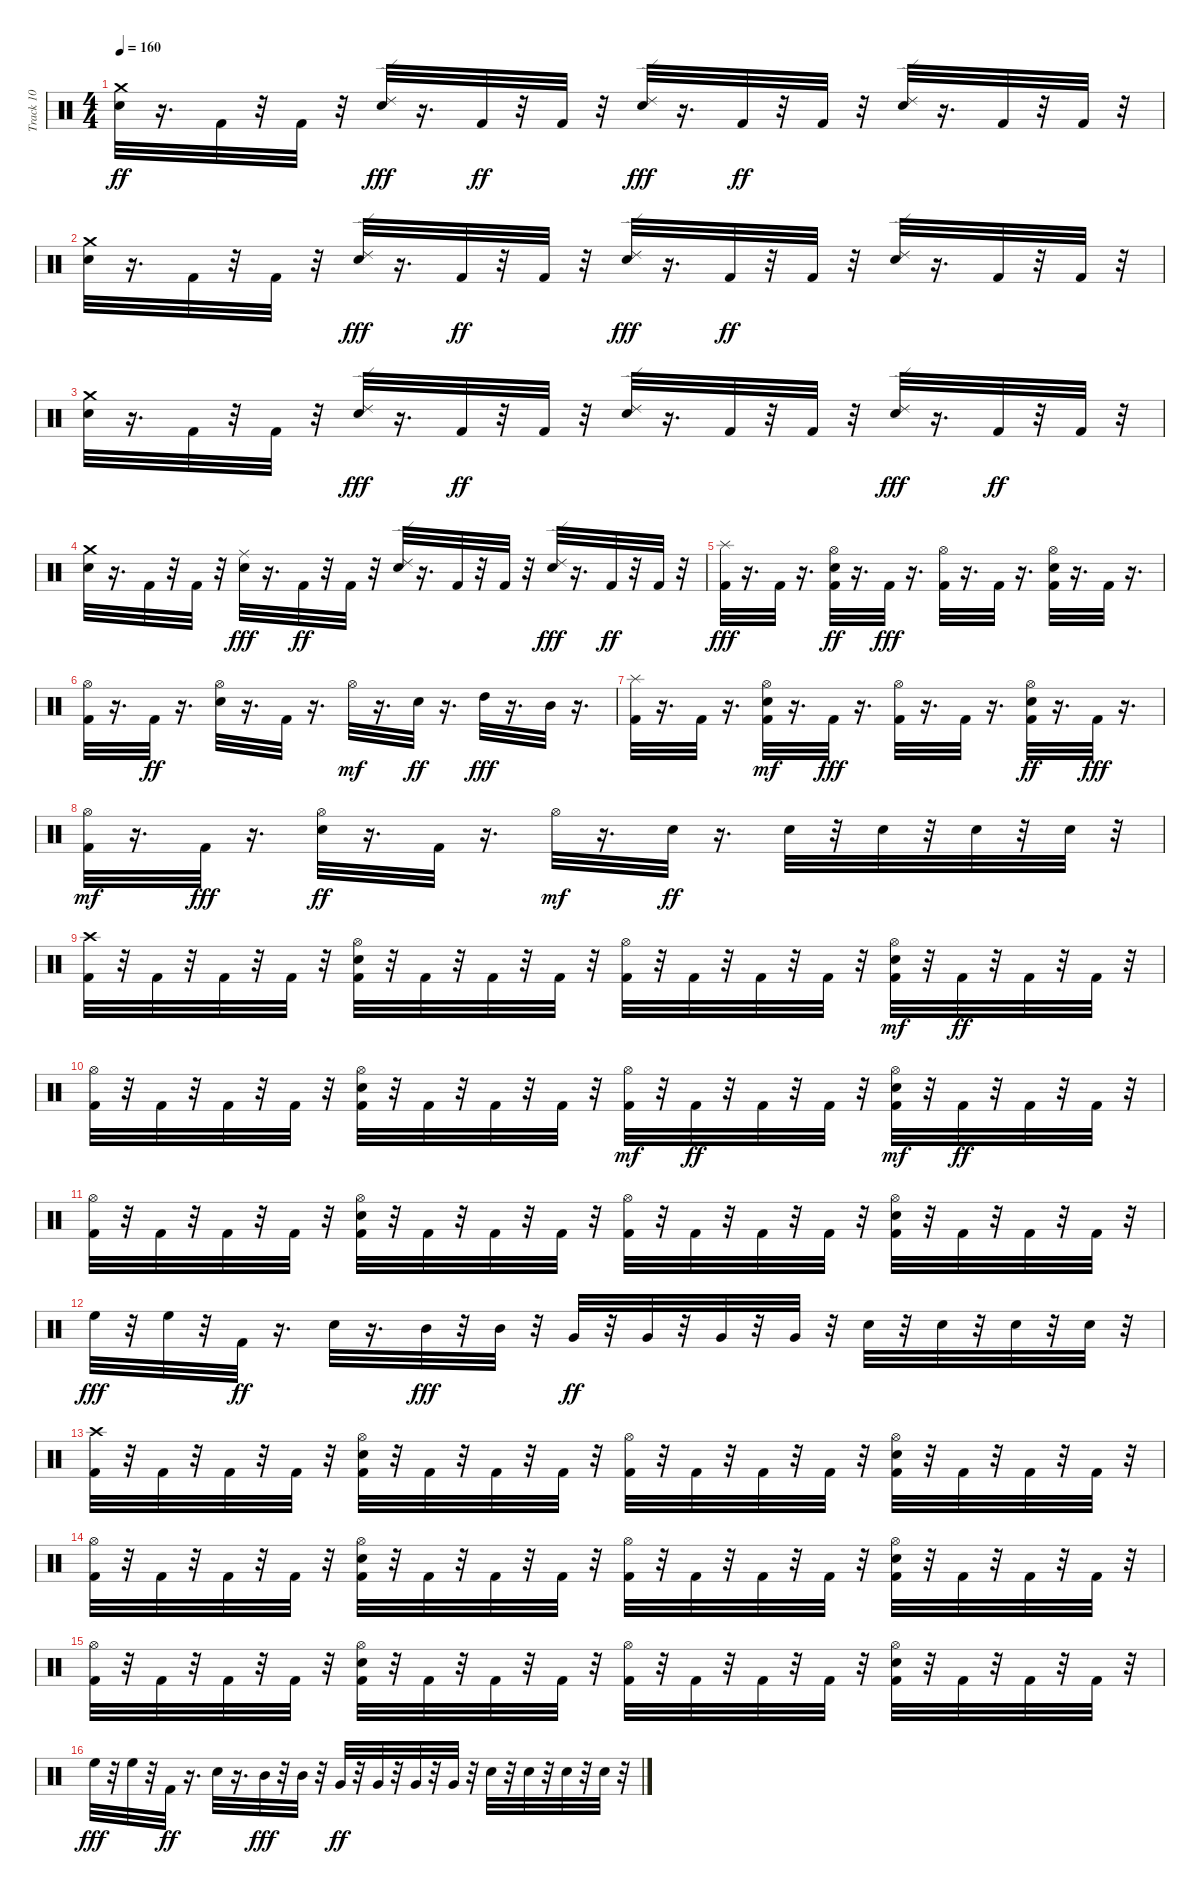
\track ("Track 10" "Track 10") {instrument percussion}
\staff {score}
\articulation defaults
\ts (4 4)
\tempo 160
\clef neutral
\ks c
("Electric Snare (hit)" "Crash medium (hit)").32{dy ff} r.16{d} "Kick (hit) 2".32 r.32 "Kick (hit) 2".32 r.32 ("Electric Snare (hit)" "Ride (edge) 2").32{dy fff} r.16{d} "Kick (hit) 2".32{dy ff} r.32 "Kick (hit) 2".32 r.32 ("Electric Snare (hit)" "Ride (edge) 2").32{dy fff} r.16{d} "Kick (hit) 2".32{dy ff} r.32 "Kick (hit) 2".32 r.32 ("Ride (edge) 2" "Electric Snare (hit)").32 r.16{d} "Kick (hit) 2".32 r.32 "Kick (hit) 2".32 r.32 |
("Crash medium (hit)" "Electric Snare (hit)").32 r.16{d} "Kick (hit) 2".32 r.32 "Kick (hit) 2".32 r.32 ("Electric Snare (hit)" "Ride (edge) 2").32{dy fff} r.16{d} "Kick (hit) 2".32{dy ff} r.32 "Kick (hit) 2".32 r.32 ("Electric Snare (hit)" "Ride (edge) 2").32{dy fff} r.16{d} "Kick (hit) 2".32{dy ff} r.32 "Kick (hit) 2".32 r.32 ("Ride (edge) 2" "Electric Snare (hit)").32 r.16{d} "Kick (hit) 2".32 r.32 "Kick (hit) 2".32 r.32 |
("Crash medium (hit)" "Electric Snare (hit)").32 r.16{d} "Kick (hit) 2".32 r.32 "Kick (hit) 2".32 r.32 ("Electric Snare (hit)" "Ride (edge) 2").32{dy fff} r.16{d} "Kick (hit) 2".32{dy ff} r.32 "Kick (hit) 2".32 r.32 ("Ride (edge) 2" "Electric Snare (hit)").32 r.16{d} "Kick (hit) 2".32 r.32 "Kick (hit) 2".32 r.32 ("Electric Snare (hit)" "Ride (edge) 2").32{dy fff} r.16{d} "Kick (hit) 2".32{dy ff} r.32 "Kick (hit) 2".32 r.32 |
("Electric Snare (hit)" "Crash medium (hit)").32 r.16{d} "Kick (hit) 2".32 r.32 "Kick (hit) 2".32 r.32 ("Electric Snare (hit)" "Ride (middle)").32{dy fff} r.16{d} "Kick (hit) 2".32{dy ff} r.32 "Kick (hit) 2".32 r.32 ("Ride (edge) 2" "Electric Snare (hit)").32 r.16{d} "Kick (hit) 2".32 r.32 "Kick (hit) 2".32 r.32 ("Electric Snare (hit)" "Ride (edge) 2").32{dy fff} r.16{d} "Kick (hit) 2".32{dy ff} r.32 "Kick (hit) 2".32 r.32 |
("Kick (hit) 2" "Splash (hit)").32{dy fff} r.16{d} "Kick (hit) 2".32 r.16{d} ("Hi-Hat (open)" "Kick (hit) 2" "Electric Snare (hit)").32{dy ff} r.16{d} "Kick (hit) 2".32{dy fff} r.16{d} ("Hi-Hat (open)" "Kick (hit) 2").32 r.16{d} "Kick (hit) 2".32 r.16{d} ("Hi-Hat (open)" "Electric Snare (hit)" "Kick (hit) 2").32 r.16{d} "Kick (hit) 2".32 r.16{d} |
("Hi-Hat (open)" "Kick (hit) 2").32 r.16{d} "Kick (hit) 2".32{dy ff} r.16{d} ("Hi-Hat (open)" "Electric Snare (hit)").32 r.16{d} "Kick (hit) 2".32 r.16{d} "Hi-Hat (open)".32{dy mf} r.16{d} "Electric Snare (hit)".32{dy ff} r.16{d} "High Tom (hit)".32{dy fff} r.16{d} "Mid Tom (hit)".32 r.16{d} |
("Kick (hit) 2" "Splash (hit)").32 r.16{d} "Kick (hit) 2".32 r.16{d} ("Electric Snare (hit)" "Kick (hit) 2" "Hi-Hat (open)").32{dy mf} r.16{d} "Kick (hit) 2".32{dy fff} r.16{d} ("Hi-Hat (open)" "Kick (hit) 2").32 r.16{d} "Kick (hit) 2".32 r.16{d} ("Kick (hit) 2" "Hi-Hat (open)" "Electric Snare (hit)").32{dy ff} r.16{d} "Kick (hit) 2".32{dy fff} r.16{d} |
("Kick (hit) 2" "Hi-Hat (open)").32{dy mf} r.16{d} "Kick (hit) 2".32{dy fff} r.16{d} ("Hi-Hat (open)" "Electric Snare (hit)").32{dy ff} r.16{d} "Kick (hit) 2".32 r.16{d} "Hi-Hat (open)".32{dy mf} r.16{d} "Electric Snare (hit)".32{dy ff} r.16{d} "Electric Snare (hit)".32 r.32 "Electric Snare (hit)".32 r.32 "Electric Snare (hit)".32 r.32 "Electric Snare (hit)".32 r.32 |
("Crash high (hit)" "Kick (hit) 2").32 r.32 "Kick (hit) 2".32 r.32 "Kick (hit) 2".32 r.32 "Kick (hit) 2".32 r.32 ("Kick (hit) 2" "Hi-Hat (open)" "Electric Snare (hit)").32 r.32 "Kick (hit) 2".32 r.32 "Kick (hit) 2".32 r.32 "Kick (hit) 2".32 r.32 ("Hi-Hat (open)" "Kick (hit) 2").32 r.32 "Kick (hit) 2".32 r.32 "Kick (hit) 2".32 r.32 "Kick (hit) 2".32 r.32 ("Kick (hit) 2" "Electric Snare (hit)" "Hi-Hat (open)").32{dy mf} r.32 "Kick (hit) 2".32{dy ff} r.32 "Kick (hit) 2".32 r.32 "Kick (hit) 2".32 r.32 |
("Hi-Hat (open)" "Kick (hit) 2").32 r.32 "Kick (hit) 2".32 r.32 "Kick (hit) 2".32 r.32 "Kick (hit) 2".32 r.32 ("Kick (hit) 2" "Hi-Hat (open)" "Electric Snare (hit)").32 r.32 "Kick (hit) 2".32 r.32 "Kick (hit) 2".32 r.32 "Kick (hit) 2".32 r.32 ("Kick (hit) 2" "Hi-Hat (open)").32{dy mf} r.32 "Kick (hit) 2".32{dy ff} r.32 "Kick (hit) 2".32 r.32 "Kick (hit) 2".32 r.32 ("Kick (hit) 2" "Electric Snare (hit)" "Hi-Hat (open)").32{dy mf} r.32 "Kick (hit) 2".32{dy ff} r.32 "Kick (hit) 2".32 r.32 "Kick (hit) 2".32 r.32 |
("Hi-Hat (open)" "Kick (hit) 2").32 r.32 "Kick (hit) 2".32 r.32 "Kick (hit) 2".32 r.32 "Kick (hit) 2".32 r.32 ("Electric Snare (hit)" "Hi-Hat (open)" "Kick (hit) 2").32 r.32 "Kick (hit) 2".32 r.32 "Kick (hit) 2".32 r.32 "Kick (hit) 2".32 r.32 ("Hi-Hat (open)" "Kick (hit) 2").32 r.32 "Kick (hit) 2".32 r.32 "Kick (hit) 2".32 r.32 "Kick (hit) 2".32 r.32 ("Hi-Hat (open)" "Electric Snare (hit)" "Kick (hit) 2").32 r.32 "Kick (hit) 2".32 r.32 "Kick (hit) 2".32 r.32 "Kick (hit) 2".32 r.32 |
"High Floor Tom (hit)".32{dy fff} r.32 "High Floor Tom (hit)".32 r.32 "Kick (hit) 2".32{dy ff} r.16{d} "Electric Snare (hit)".32 r.16{d} "Mid Tom (hit)".32{dy fff} r.32 "Mid Tom (hit)".32 r.32 "Very Low Tom (hit)".32{dy ff} r.32 "Very Low Tom (hit)".32 r.32 "Very Low Tom (hit)".32 r.32 "Very Low Tom (hit)".32 r.32 "Electric Snare (hit)".32 r.32 "Electric Snare (hit)".32 r.32 "Electric Snare (hit)".32 r.32 "Electric Snare (hit)".32 r.32 |
("Crash high (hit)" "Kick (hit) 2").32 r.32 "Kick (hit) 2".32 r.32 "Kick (hit) 2".32 r.32 "Kick (hit) 2".32 r.32 ("Electric Snare (hit)" "Hi-Hat (open)" "Kick (hit) 2").32 r.32 "Kick (hit) 2".32 r.32 "Kick (hit) 2".32 r.32 "Kick (hit) 2".32 r.32 ("Hi-Hat (open)" "Kick (hit) 2").32 r.32 "Kick (hit) 2".32 r.32 "Kick (hit) 2".32 r.32 "Kick (hit) 2".32 r.32 ("Kick (hit) 2" "Hi-Hat (open)" "Electric Snare (hit)").32 r.32 "Kick (hit) 2".32 r.32 "Kick (hit) 2".32 r.32 "Kick (hit) 2".32 r.32 |
("Hi-Hat (open)" "Kick (hit) 2").32 r.32 "Kick (hit) 2".32 r.32 "Kick (hit) 2".32 r.32 "Kick (hit) 2".32 r.32 ("Hi-Hat (open)" "Kick (hit) 2" "Electric Snare (hit)").32 r.32 "Kick (hit) 2".32 r.32 "Kick (hit) 2".32 r.32 "Kick (hit) 2".32 r.32 ("Hi-Hat (open)" "Kick (hit) 2").32 r.32 "Kick (hit) 2".32 r.32 "Kick (hit) 2".32 r.32 "Kick (hit) 2".32 r.32 ("Hi-Hat (open)" "Electric Snare (hit)" "Kick (hit) 2").32 r.32 "Kick (hit) 2".32 r.32 "Kick (hit) 2".32 r.32 "Kick (hit) 2".32 r.32 |
("Hi-Hat (open)" "Kick (hit) 2").32 r.32 "Kick (hit) 2".32 r.32 "Kick (hit) 2".32 r.32 "Kick (hit) 2".32 r.32 ("Hi-Hat (open)" "Electric Snare (hit)" "Kick (hit) 2").32 r.32 "Kick (hit) 2".32 r.32 "Kick (hit) 2".32 r.32 "Kick (hit) 2".32 r.32 ("Hi-Hat (open)" "Kick (hit) 2").32 r.32 "Kick (hit) 2".32 r.32 "Kick (hit) 2".32 r.32 "Kick (hit) 2".32 r.32 ("Hi-Hat (open)" "Electric Snare (hit)" "Kick (hit) 2").32 r.32 "Kick (hit) 2".32 r.32 "Kick (hit) 2".32 r.32 "Kick (hit) 2".32 r.32 |
"High Floor Tom (hit)".32{dy fff} r.32 "High Floor Tom (hit)".32 r.32 "Kick (hit) 2".32{dy ff} r.16{d} "Electric Snare (hit)".32 r.16{d} "Mid Tom (hit)".32{dy fff} r.32 "Mid Tom (hit)".32 r.32 "Very Low Tom (hit)".32{dy ff} r.32 "Very Low Tom (hit)".32 r.32 "Very Low Tom (hit)".32 r.32 "Very Low Tom (hit)".32 r.32 "Electric Snare (hit)".32 r.32 "Electric Snare (hit)".32 r.32 "Electric Snare (hit)".32 r.32 "Electric Snare (hit)".32 r.32
